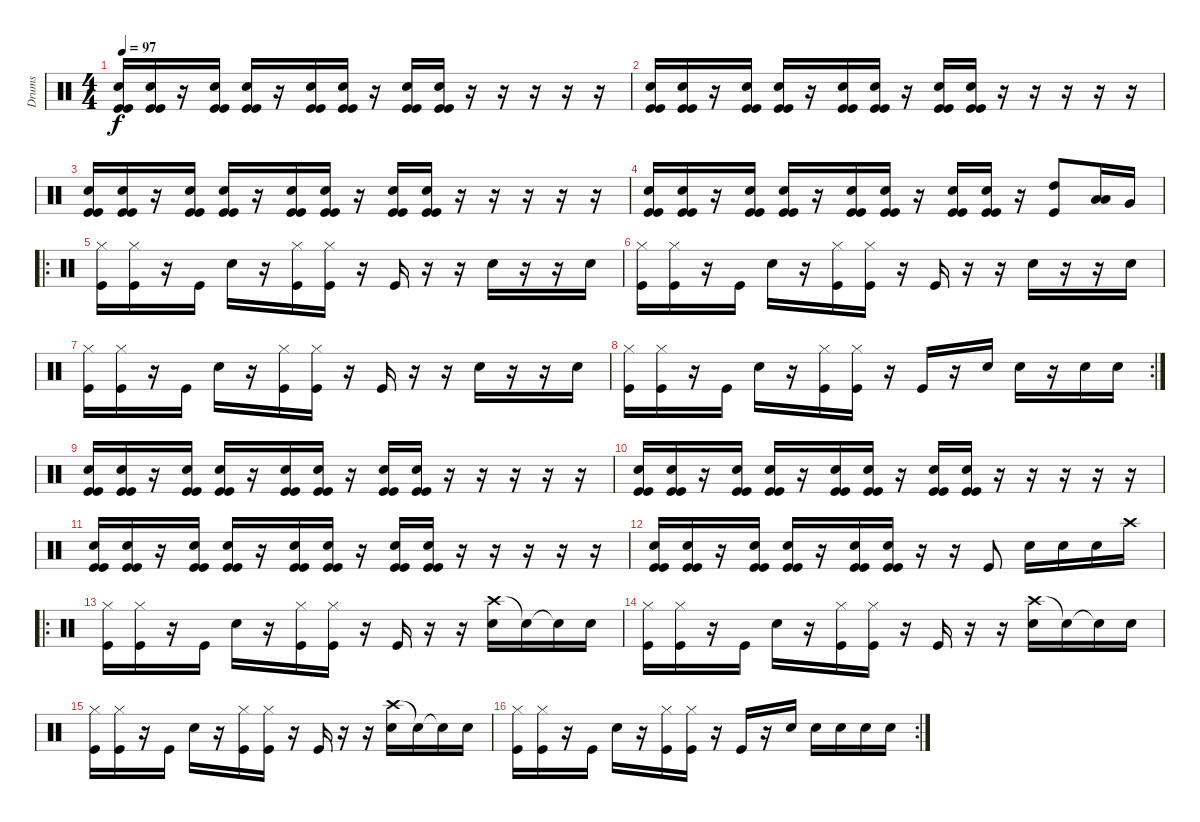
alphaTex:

\track ("Drums" "Drums") {instrument percussion}
\staff {score}
\articulation defaults
\ts (4 4)
\tempo 97
\clef neutral
\ks c
("Kick (hit)" "Kick (hit)" "Snare (hit) 2").16{dy f} ("Kick (hit)" "Kick (hit)" "Snare (hit) 2").16 r.16 ("Kick (hit)" "Kick (hit)" "Snare (hit) 2").16 ("Kick (hit)" "Kick (hit)" "Snare (hit) 2").16 r.16 ("Kick (hit)" "Kick (hit)" "Snare (hit) 2").16 ("Kick (hit)" "Kick (hit)" "Snare (hit) 2").16 r.16 ("Kick (hit)" "Kick (hit)" "Snare (hit) 2").16 ("Kick (hit)" "Kick (hit)" "Snare (hit) 2").16 r.16 r.16 r.16 r.16 r.16 |
("Kick (hit)" "Kick (hit)" "Snare (hit) 2").16 ("Kick (hit)" "Kick (hit)" "Snare (hit) 2").16 r.16 ("Kick (hit)" "Kick (hit)" "Snare (hit) 2").16 ("Kick (hit)" "Kick (hit)" "Snare (hit) 2").16 r.16 ("Kick (hit)" "Kick (hit)" "Snare (hit) 2").16 ("Kick (hit)" "Kick (hit)" "Snare (hit) 2").16 r.16 ("Kick (hit)" "Kick (hit)" "Snare (hit) 2").16 ("Kick (hit)" "Kick (hit)" "Snare (hit) 2").16 r.16 r.16 r.16 r.16 r.16 |
("Kick (hit)" "Kick (hit)" "Snare (hit) 2").16 ("Kick (hit)" "Kick (hit)" "Snare (hit) 2").16 r.16 ("Kick (hit)" "Kick (hit)" "Snare (hit) 2").16 ("Kick (hit)" "Kick (hit)" "Snare (hit) 2").16 r.16 ("Kick (hit)" "Kick (hit)" "Snare (hit) 2").16 ("Kick (hit)" "Kick (hit)" "Snare (hit) 2").16 r.16 ("Kick (hit)" "Kick (hit)" "Snare (hit) 2").16 ("Kick (hit)" "Kick (hit)" "Snare (hit) 2").16 r.16 r.16 r.16 r.16 r.16 |
("Kick (hit)" "Kick (hit)" "Snare (hit) 2").16 ("Kick (hit)" "Kick (hit)" "Snare (hit) 2").16 r.16 ("Kick (hit)" "Kick (hit)" "Snare (hit) 2").16 ("Kick (hit)" "Kick (hit)" "Snare (hit) 2").16 r.16 ("Kick (hit)" "Kick (hit)" "Snare (hit) 2").16 ("Kick (hit)" "Kick (hit)" "Snare (hit) 2").16 r.16 ("Kick (hit)" "Kick (hit)" "Snare (hit) 2").16 ("Kick (hit)" "Kick (hit)" "Snare (hit) 2").16 r.16 ("High Tom (hit)" "Kick (hit)").8 ("Low Tom (hit)" "Low Tom (hit)").16 "Very Low Tom (hit)".16 |
\ro
("Kick (hit)" "Hi-Hat (closed)").16 ("Kick (hit)" "Hi-Hat (closed)").16 r.16 "Kick (hit)".16 "Snare (hit) 2".16 r.16 ("Kick (hit)" "Hi-Hat (closed)").16 ("Kick (hit)" "Hi-Hat (closed)").16 r.16 "Kick (hit)".16 r.16 r.16 "Snare (hit) 2".16 r.16 r.16 "Snare (hit) 2".16 |
("Kick (hit)" "Hi-Hat (closed)").16 ("Kick (hit)" "Hi-Hat (closed)").16 r.16 "Kick (hit)".16 "Snare (hit) 2".16 r.16 ("Kick (hit)" "Hi-Hat (closed)").16 ("Kick (hit)" "Hi-Hat (closed)").16 r.16 "Kick (hit)".16 r.16 r.16 "Snare (hit) 2".16 r.16 r.16 "Snare (hit) 2".16 |
("Kick (hit)" "Hi-Hat (closed)").16 ("Kick (hit)" "Hi-Hat (closed)").16 r.16 "Kick (hit)".16 "Snare (hit) 2".16 r.16 ("Kick (hit)" "Hi-Hat (closed)").16 ("Kick (hit)" "Hi-Hat (closed)").16 r.16 "Kick (hit)".16 r.16 r.16 "Snare (hit) 2".16 r.16 r.16 "Snare (hit) 2".16 |
\rc 2
("Kick (hit)" "Hi-Hat (closed)").16 ("Kick (hit)" "Hi-Hat (closed)").16 r.16 "Kick (hit)".16 "Snare (hit) 2".16 r.16 ("Kick (hit)" "Hi-Hat (closed)").16 ("Kick (hit)" "Hi-Hat (closed)").16 r.16 "Kick (hit)".16 r.16 "Snare (hit) 2".16 "Snare (hit) 2".16 r.16 "Snare (hit) 2".16 "Snare (hit) 2".16 |
("Kick (hit)" "Kick (hit)" "Snare (hit) 2").16 ("Kick (hit)" "Kick (hit)" "Snare (hit) 2").16 r.16 ("Kick (hit)" "Kick (hit)" "Snare (hit) 2").16 ("Kick (hit)" "Kick (hit)" "Snare (hit) 2").16 r.16 ("Kick (hit)" "Kick (hit)" "Snare (hit) 2").16 ("Kick (hit)" "Kick (hit)" "Snare (hit) 2").16 r.16 ("Kick (hit)" "Kick (hit)" "Snare (hit) 2").16 ("Kick (hit)" "Kick (hit)" "Snare (hit) 2").16 r.16 r.16 r.16 r.16 r.16 |
("Kick (hit)" "Kick (hit)" "Snare (hit) 2").16 ("Kick (hit)" "Kick (hit)" "Snare (hit) 2").16 r.16 ("Kick (hit)" "Kick (hit)" "Snare (hit) 2").16 ("Kick (hit)" "Kick (hit)" "Snare (hit) 2").16 r.16 ("Kick (hit)" "Kick (hit)" "Snare (hit) 2").16 ("Kick (hit)" "Kick (hit)" "Snare (hit) 2").16 r.16 ("Kick (hit)" "Kick (hit)" "Snare (hit) 2").16 ("Kick (hit)" "Kick (hit)" "Snare (hit) 2").16 r.16 r.16 r.16 r.16 r.16 |
("Kick (hit)" "Kick (hit)" "Snare (hit) 2").16 ("Kick (hit)" "Kick (hit)" "Snare (hit) 2").16 r.16 ("Kick (hit)" "Kick (hit)" "Snare (hit) 2").16 ("Kick (hit)" "Kick (hit)" "Snare (hit) 2").16 r.16 ("Kick (hit)" "Kick (hit)" "Snare (hit) 2").16 ("Kick (hit)" "Kick (hit)" "Snare (hit) 2").16 r.16 ("Kick (hit)" "Kick (hit)" "Snare (hit) 2").16 ("Kick (hit)" "Kick (hit)" "Snare (hit) 2").16 r.16 r.16 r.16 r.16 r.16 |
("Kick (hit)" "Kick (hit)" "Snare (hit) 2").16 ("Kick (hit)" "Kick (hit)" "Snare (hit) 2").16 r.16 ("Kick (hit)" "Kick (hit)" "Snare (hit) 2").16 ("Kick (hit)" "Kick (hit)" "Snare (hit) 2").16 r.16 ("Kick (hit)" "Kick (hit)" "Snare (hit) 2").16 ("Kick (hit)" "Kick (hit)" "Snare (hit) 2").16 r.16 r.16 "Kick (hit)".8 "Snare (hit) 2".16 "Snare (hit) 2".16 "Snare (hit) 2".16 "Crash high (hit)".16 |
\ro
("Kick (hit)" "Hi-Hat (closed)").16 ("Kick (hit)" "Hi-Hat (closed)").16 r.16 "Kick (hit)".16 "Snare (hit) 2".16 r.16 ("Kick (hit)" "Hi-Hat (closed)").16 ("Kick (hit)" "Hi-Hat (closed)").16 r.16 "Kick (hit)".16 r.16 r.16 ("Crash high (hit)" "Snare (hit) 2").16 "Snare (hit)"{t}.16 "Snare (hit)"{t}.16 "Snare (hit) 2".16 |
("Kick (hit)" "Hi-Hat (closed)").16 ("Kick (hit)" "Hi-Hat (closed)").16 r.16 "Kick (hit)".16 "Snare (hit) 2".16 r.16 ("Kick (hit)" "Hi-Hat (closed)").16 ("Kick (hit)" "Hi-Hat (closed)").16 r.16 "Kick (hit)".16 r.16 r.16 ("Crash high (hit)" "Snare (hit) 2").16 "Snare (hit)"{t}.16 "Snare (hit)"{t}.16 "Snare (hit) 2".16 |
("Kick (hit)" "Hi-Hat (closed)").16 ("Kick (hit)" "Hi-Hat (closed)").16 r.16 "Kick (hit)".16 "Snare (hit) 2".16 r.16 ("Kick (hit)" "Hi-Hat (closed)").16 ("Kick (hit)" "Hi-Hat (closed)").16 r.16 "Kick (hit)".16 r.16 r.16 ("Crash high (hit)" "Snare (hit) 2").16 "Snare (hit)"{t}.16 "Snare (hit)"{t}.16 "Snare (hit) 2".16 |
\rc 2
("Kick (hit)" "Hi-Hat (closed)").16 ("Kick (hit)" "Hi-Hat (closed)").16 r.16 "Kick (hit)".16 "Snare (hit) 2".16 r.16 ("Kick (hit)" "Hi-Hat (closed)").16 ("Kick (hit)" "Hi-Hat (closed)").16 r.16 "Kick (hit)".16 r.16 "Snare (hit) 2".16 "Snare (hit) 2".16 "Snare (hit) 2".16 "Snare (hit) 2".16 "Snare (hit) 2".16
